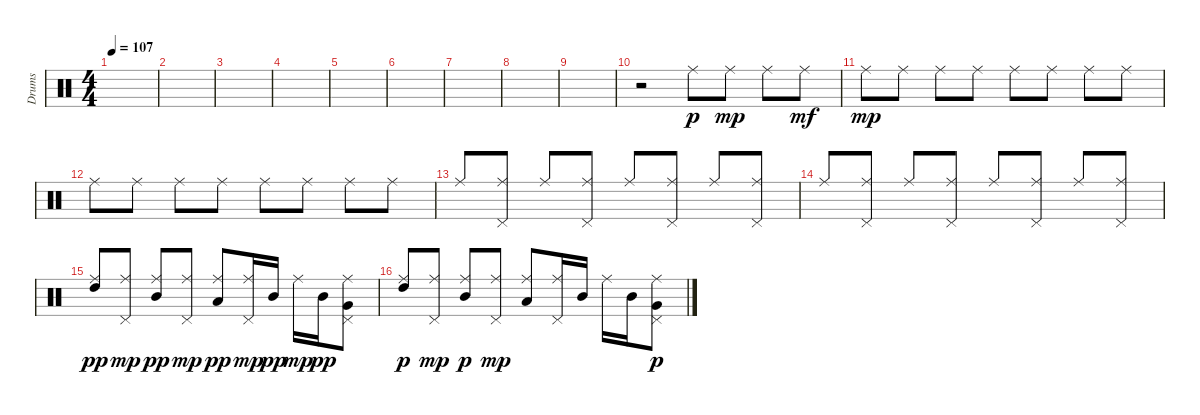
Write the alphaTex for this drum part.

\track ("Drums" "Drums") {instrument percussion}
\staff {score}
\articulation defaults
\ts (4 4)
\tempo 107
\clef neutral
\ks c
|
|
|
|
|
|
|
|
|
r.2 "Ride (middle)".8{dy p} "Ride (middle)".8{dy mp} "Ride (middle)".8 "Ride (middle)".8{dy mf} |
"Ride (middle)".8{dy mp} "Ride (middle)".8 "Ride (middle)".8 "Ride (middle)".8 "Ride (middle)".8 "Ride (middle)".8 "Ride (middle)".8 "Ride (middle)".8 |
"Ride (middle)".8 "Ride (middle)".8 "Ride (middle)".8 "Ride (middle)".8 "Ride (middle)".8 "Ride (middle)".8 "Ride (middle)".8 "Ride (middle)".8 |
"Ride (middle)".8 ("Pedal Hi-Hat (hit)" "Ride (middle)").8 "Ride (middle)".8 ("Pedal Hi-Hat (hit)" "Ride (middle)").8 "Ride (middle)".8 ("Pedal Hi-Hat (hit)" "Ride (middle)").8 "Ride (middle)".8 ("Pedal Hi-Hat (hit)" "Ride (middle)").8 |
"Ride (middle)".8 ("Pedal Hi-Hat (hit)" "Ride (middle)").8 "Ride (middle)".8 ("Pedal Hi-Hat (hit)" "Ride (middle)").8 "Ride (middle)".8 ("Pedal Hi-Hat (hit)" "Ride (middle)").8 "Ride (middle)".8 ("Pedal Hi-Hat (hit)" "Ride (middle)").8 |
("Ride (middle)" "High Tom (hit)").8{dy pp} ("Pedal Hi-Hat (hit)" "Ride (middle)").8{dy mp} ("Ride (middle)" "Mid Tom (hit)").8{dy pp} ("Pedal Hi-Hat (hit)" "Ride (middle)").8{dy mp} ("Ride (middle)" "Low Tom (hit)").8{dy pp} ("Pedal Hi-Hat (hit)" "Ride (middle)").16{dy mp} "Mid Tom (hit)".16{dy pp} "Ride (middle)".16{dy mp} "Mid Tom (hit)".16{dy pp} ("Pedal Hi-Hat (hit)" "Ride (middle)" "Very Low Tom (hit)").8 |
("Ride (middle)" "High Tom (hit)").8{dy p} ("Pedal Hi-Hat (hit)" "Ride (middle)").8{dy mp} ("Ride (middle)" "Mid Tom (hit)").8{dy p} ("Pedal Hi-Hat (hit)" "Ride (middle)").8{dy mp} ("Ride (middle)" "Low Tom (hit)").8 ("Pedal Hi-Hat (hit)" "Ride (middle)").16 "Mid Tom (hit)".16 "Ride (middle)".16 "Mid Tom (hit)".16 ("Pedal Hi-Hat (hit)" "Ride (middle)" "Very Low Tom (hit)").8{dy p}
